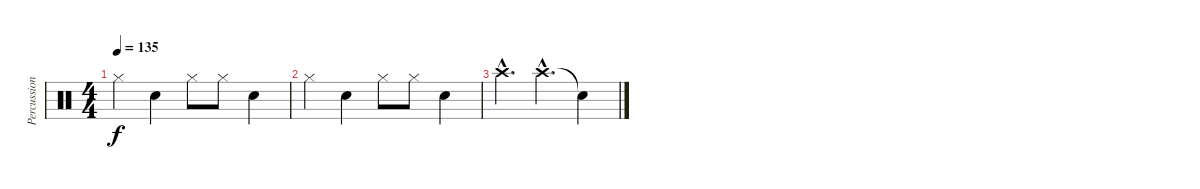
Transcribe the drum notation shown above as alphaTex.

\track ("Percussion" "Percussion") {instrument percussion}
\staff {score}
\articulation defaults
\ts (4 4)
\tempo 135
\clef neutral
\ks c "Hi-Hat (closed)".4{dy f} "Electric Snare (hit)".4 "Hi-Hat (closed)".8 "Hi-Hat (closed)".8 "Electric Snare (hit)".4
|
"Hi-Hat (closed)".4 "Electric Snare (hit)".4 "Hi-Hat (closed)".8 "Hi-Hat (closed)".8 "Electric Snare (hit)".4 |
"Crash high (hit)"{hac}.4{d} "Crash high (hit)"{hac}.4{d} "Snare (hit)"{t}.4
